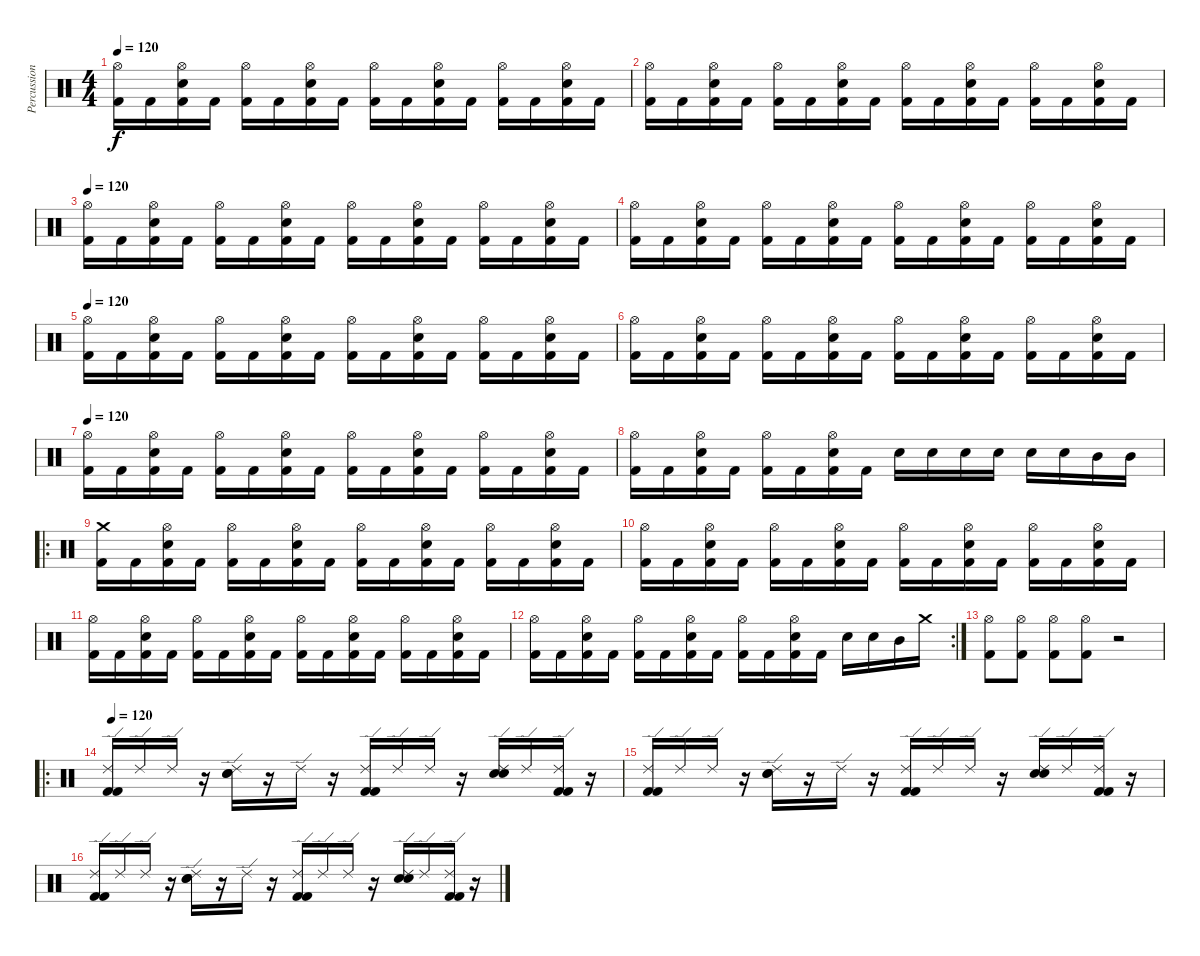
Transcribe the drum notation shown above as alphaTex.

\track ("Percussions" "Percussion") {instrument percussion}
\staff {score}
\articulation defaults
\ts (4 4)
\tempo 120
\clef neutral
\ks c
("Kick (hit) 2" "Hi-Hat (open)").16{dy f} "Kick (hit) 2".16 ("Kick (hit) 2" "Electric Snare (hit)" "Hi-Hat (open)").16 "Kick (hit) 2".16 ("Kick (hit) 2" "Hi-Hat (open)").16 "Kick (hit) 2".16 ("Kick (hit) 2" "Electric Snare (hit)" "Hi-Hat (open)").16 "Kick (hit) 2".16 ("Kick (hit) 2" "Hi-Hat (open)").16 "Kick (hit) 2".16 ("Kick (hit) 2" "Electric Snare (hit)" "Hi-Hat (open)").16 "Kick (hit) 2".16 ("Kick (hit) 2" "Hi-Hat (open)").16 "Kick (hit) 2".16 ("Kick (hit) 2" "Electric Snare (hit)" "Hi-Hat (open)").16 "Kick (hit) 2".16 |
("Kick (hit) 2" "Hi-Hat (open)").16 "Kick (hit) 2".16 ("Kick (hit) 2" "Electric Snare (hit)" "Hi-Hat (open)").16 "Kick (hit) 2".16 ("Kick (hit) 2" "Hi-Hat (open)").16 "Kick (hit) 2".16 ("Kick (hit) 2" "Electric Snare (hit)" "Hi-Hat (open)").16 "Kick (hit) 2".16 ("Kick (hit) 2" "Hi-Hat (open)").16 "Kick (hit) 2".16 ("Kick (hit) 2" "Electric Snare (hit)" "Hi-Hat (open)").16 "Kick (hit) 2".16 ("Kick (hit) 2" "Hi-Hat (open)").16 "Kick (hit) 2".16 ("Kick (hit) 2" "Electric Snare (hit)" "Hi-Hat (open)").16 "Kick (hit) 2".16 |
\tempo 120
("Kick (hit) 2" "Hi-Hat (open)").16 "Kick (hit) 2".16 ("Kick (hit) 2" "Electric Snare (hit)" "Hi-Hat (open)").16 "Kick (hit) 2".16 ("Kick (hit) 2" "Hi-Hat (open)").16 "Kick (hit) 2".16 ("Kick (hit) 2" "Electric Snare (hit)" "Hi-Hat (open)").16 "Kick (hit) 2".16 ("Kick (hit) 2" "Hi-Hat (open)").16 "Kick (hit) 2".16 ("Kick (hit) 2" "Electric Snare (hit)" "Hi-Hat (open)").16 "Kick (hit) 2".16 ("Kick (hit) 2" "Hi-Hat (open)").16 "Kick (hit) 2".16 ("Kick (hit) 2" "Electric Snare (hit)" "Hi-Hat (open)").16 "Kick (hit) 2".16 |
("Kick (hit) 2" "Hi-Hat (open)").16 "Kick (hit) 2".16 ("Kick (hit) 2" "Electric Snare (hit)" "Hi-Hat (open)").16 "Kick (hit) 2".16 ("Kick (hit) 2" "Hi-Hat (open)").16 "Kick (hit) 2".16 ("Kick (hit) 2" "Electric Snare (hit)" "Hi-Hat (open)").16 "Kick (hit) 2".16 ("Kick (hit) 2" "Hi-Hat (open)").16 "Kick (hit) 2".16 ("Kick (hit) 2" "Electric Snare (hit)" "Hi-Hat (open)").16 "Kick (hit) 2".16 ("Kick (hit) 2" "Hi-Hat (open)").16 "Kick (hit) 2".16 ("Kick (hit) 2" "Electric Snare (hit)" "Hi-Hat (open)").16 "Kick (hit) 2".16 |
\tempo 120
("Kick (hit) 2" "Hi-Hat (open)").16 "Kick (hit) 2".16 ("Kick (hit) 2" "Electric Snare (hit)" "Hi-Hat (open)").16 "Kick (hit) 2".16 ("Kick (hit) 2" "Hi-Hat (open)").16 "Kick (hit) 2".16 ("Kick (hit) 2" "Electric Snare (hit)" "Hi-Hat (open)").16 "Kick (hit) 2".16 ("Kick (hit) 2" "Hi-Hat (open)").16 "Kick (hit) 2".16 ("Kick (hit) 2" "Electric Snare (hit)" "Hi-Hat (open)").16 "Kick (hit) 2".16 ("Kick (hit) 2" "Hi-Hat (open)").16 "Kick (hit) 2".16 ("Kick (hit) 2" "Electric Snare (hit)" "Hi-Hat (open)").16 "Kick (hit) 2".16 |
("Kick (hit) 2" "Hi-Hat (open)").16 "Kick (hit) 2".16 ("Kick (hit) 2" "Electric Snare (hit)" "Hi-Hat (open)").16 "Kick (hit) 2".16 ("Kick (hit) 2" "Hi-Hat (open)").16 "Kick (hit) 2".16 ("Kick (hit) 2" "Electric Snare (hit)" "Hi-Hat (open)").16 "Kick (hit) 2".16 ("Kick (hit) 2" "Hi-Hat (open)").16 "Kick (hit) 2".16 ("Kick (hit) 2" "Electric Snare (hit)" "Hi-Hat (open)").16 "Kick (hit) 2".16 ("Kick (hit) 2" "Hi-Hat (open)").16 "Kick (hit) 2".16 ("Kick (hit) 2" "Electric Snare (hit)" "Hi-Hat (open)").16 "Kick (hit) 2".16 |
\tempo 120
("Kick (hit) 2" "Hi-Hat (open)").16 "Kick (hit) 2".16 ("Kick (hit) 2" "Electric Snare (hit)" "Hi-Hat (open)").16 "Kick (hit) 2".16 ("Kick (hit) 2" "Hi-Hat (open)").16 "Kick (hit) 2".16 ("Kick (hit) 2" "Electric Snare (hit)" "Hi-Hat (open)").16 "Kick (hit) 2".16 ("Kick (hit) 2" "Hi-Hat (open)").16 "Kick (hit) 2".16 ("Kick (hit) 2" "Electric Snare (hit)" "Hi-Hat (open)").16 "Kick (hit) 2".16 ("Kick (hit) 2" "Hi-Hat (open)").16 "Kick (hit) 2".16 ("Kick (hit) 2" "Electric Snare (hit)" "Hi-Hat (open)").16 "Kick (hit) 2".16 |
("Kick (hit) 2" "Hi-Hat (open)").16 "Kick (hit) 2".16 ("Kick (hit) 2" "Electric Snare (hit)" "Hi-Hat (open)").16 "Kick (hit) 2".16 ("Kick (hit) 2" "Hi-Hat (open)").16 "Kick (hit) 2".16 ("Kick (hit) 2" "Electric Snare (hit)" "Hi-Hat (open)").16 "Kick (hit) 2".16 "Electric Snare (hit)".16 "Electric Snare (hit)".16 "Electric Snare (hit)".16 "Electric Snare (hit)".16 "Snare (hit) 2".16 "Snare (hit) 2".16 "Mid Tom (hit)".16 "Mid Tom (hit)".16 |
\ro
("Kick (hit) 2" "Crash medium (hit)").16 "Kick (hit) 2".16 ("Kick (hit) 2" "Electric Snare (hit)" "Hi-Hat (open)").16 "Kick (hit) 2".16 ("Kick (hit) 2" "Hi-Hat (open)").16 "Kick (hit) 2".16 ("Kick (hit) 2" "Electric Snare (hit)" "Hi-Hat (open)").16 "Kick (hit) 2".16 ("Kick (hit) 2" "Hi-Hat (open)").16 "Kick (hit) 2".16 ("Kick (hit) 2" "Electric Snare (hit)" "Hi-Hat (open)").16 "Kick (hit) 2".16 ("Kick (hit) 2" "Hi-Hat (open)").16 "Kick (hit) 2".16 ("Kick (hit) 2" "Electric Snare (hit)" "Hi-Hat (open)").16 "Kick (hit) 2".16 |
("Kick (hit) 2" "Hi-Hat (open)").16 "Kick (hit) 2".16 ("Kick (hit) 2" "Electric Snare (hit)" "Hi-Hat (open)").16 "Kick (hit) 2".16 ("Kick (hit) 2" "Hi-Hat (open)").16 "Kick (hit) 2".16 ("Kick (hit) 2" "Electric Snare (hit)" "Hi-Hat (open)").16 "Kick (hit) 2".16 ("Kick (hit) 2" "Hi-Hat (open)").16 "Kick (hit) 2".16 ("Kick (hit) 2" "Electric Snare (hit)" "Hi-Hat (open)").16 "Kick (hit) 2".16 ("Kick (hit) 2" "Hi-Hat (open)").16 "Kick (hit) 2".16 ("Kick (hit) 2" "Electric Snare (hit)" "Hi-Hat (open)").16 "Kick (hit) 2".16 |
("Kick (hit) 2" "Hi-Hat (open)").16 "Kick (hit) 2".16 ("Kick (hit) 2" "Electric Snare (hit)" "Hi-Hat (open)").16 "Kick (hit) 2".16 ("Kick (hit) 2" "Hi-Hat (open)").16 "Kick (hit) 2".16 ("Kick (hit) 2" "Electric Snare (hit)" "Hi-Hat (open)").16 "Kick (hit) 2".16 ("Kick (hit) 2" "Hi-Hat (open)").16 "Kick (hit) 2".16 ("Kick (hit) 2" "Electric Snare (hit)" "Hi-Hat (open)").16 "Kick (hit) 2".16 ("Kick (hit) 2" "Hi-Hat (open)").16 "Kick (hit) 2".16 ("Kick (hit) 2" "Electric Snare (hit)" "Hi-Hat (open)").16 "Kick (hit) 2".16 |
\rc 2
("Kick (hit) 2" "Hi-Hat (open)").16 "Kick (hit) 2".16 ("Kick (hit) 2" "Electric Snare (hit)" "Hi-Hat (open)").16 "Kick (hit) 2".16 ("Kick (hit) 2" "Hi-Hat (open)").16 "Kick (hit) 2".16 ("Kick (hit) 2" "Electric Snare (hit)" "Hi-Hat (open)").16 "Kick (hit) 2".16 ("Kick (hit) 2" "Hi-Hat (open)").16 "Kick (hit) 2".16 ("Kick (hit) 2" "Electric Snare (hit)" "Hi-Hat (open)").16 "Kick (hit) 2".16 "Electric Snare (hit)".16 "Snare (hit) 2".16 "Mid Tom (hit)".16 "Crash medium (hit)".16 |
("Hi-Hat (open)" "Kick (hit) 2").8 ("Hi-Hat (open)" "Kick (hit) 2").8 ("Hi-Hat (open)" "Kick (hit) 2").8 ("Hi-Hat (open)" "Kick (hit) 2").8 r.2 |
\ro
\tempo 120
("Ride (edge) 2" "Kick (hit) 2" "Kick (hit) 2").16 "Ride (edge) 2".16 "Ride (edge) 2".16 r.16 ("Ride (edge) 2" "Electric Snare (hit)" "Electric Snare (hit)").16 r.16 "Ride (edge) 2".16 r.16 ("Ride (edge) 2" "Kick (hit) 2" "Kick (hit) 2").16 "Ride (edge) 2".16 "Ride (edge) 2".16 r.16 ("Ride (edge) 2" "Electric Snare (hit)" "Electric Snare (hit)").16 "Ride (edge) 2".16 ("Ride (edge) 2" "Kick (hit) 2" "Kick (hit) 2").16 r.16 |
("Ride (edge) 2" "Kick (hit) 2" "Kick (hit) 2").16 "Ride (edge) 2".16 "Ride (edge) 2".16 r.16 ("Ride (edge) 2" "Electric Snare (hit)" "Electric Snare (hit)").16 r.16 "Ride (edge) 2".16 r.16 ("Ride (edge) 2" "Kick (hit) 2" "Kick (hit) 2").16 "Ride (edge) 2".16 "Ride (edge) 2".16 r.16 ("Ride (edge) 2" "Electric Snare (hit)" "Electric Snare (hit)").16 "Ride (edge) 2".16 ("Ride (edge) 2" "Kick (hit) 2" "Kick (hit) 2").16 r.16 |
("Ride (edge) 2" "Kick (hit) 2" "Kick (hit) 2").16 "Ride (edge) 2".16 "Ride (edge) 2".16 r.16 ("Ride (edge) 2" "Electric Snare (hit)" "Electric Snare (hit)").16 r.16 "Ride (edge) 2".16 r.16 ("Ride (edge) 2" "Kick (hit) 2" "Kick (hit) 2").16 "Ride (edge) 2".16 "Ride (edge) 2".16 r.16 ("Ride (edge) 2" "Electric Snare (hit)" "Electric Snare (hit)").16 "Ride (edge) 2".16 ("Ride (edge) 2" "Kick (hit) 2" "Kick (hit) 2").16 r.16
